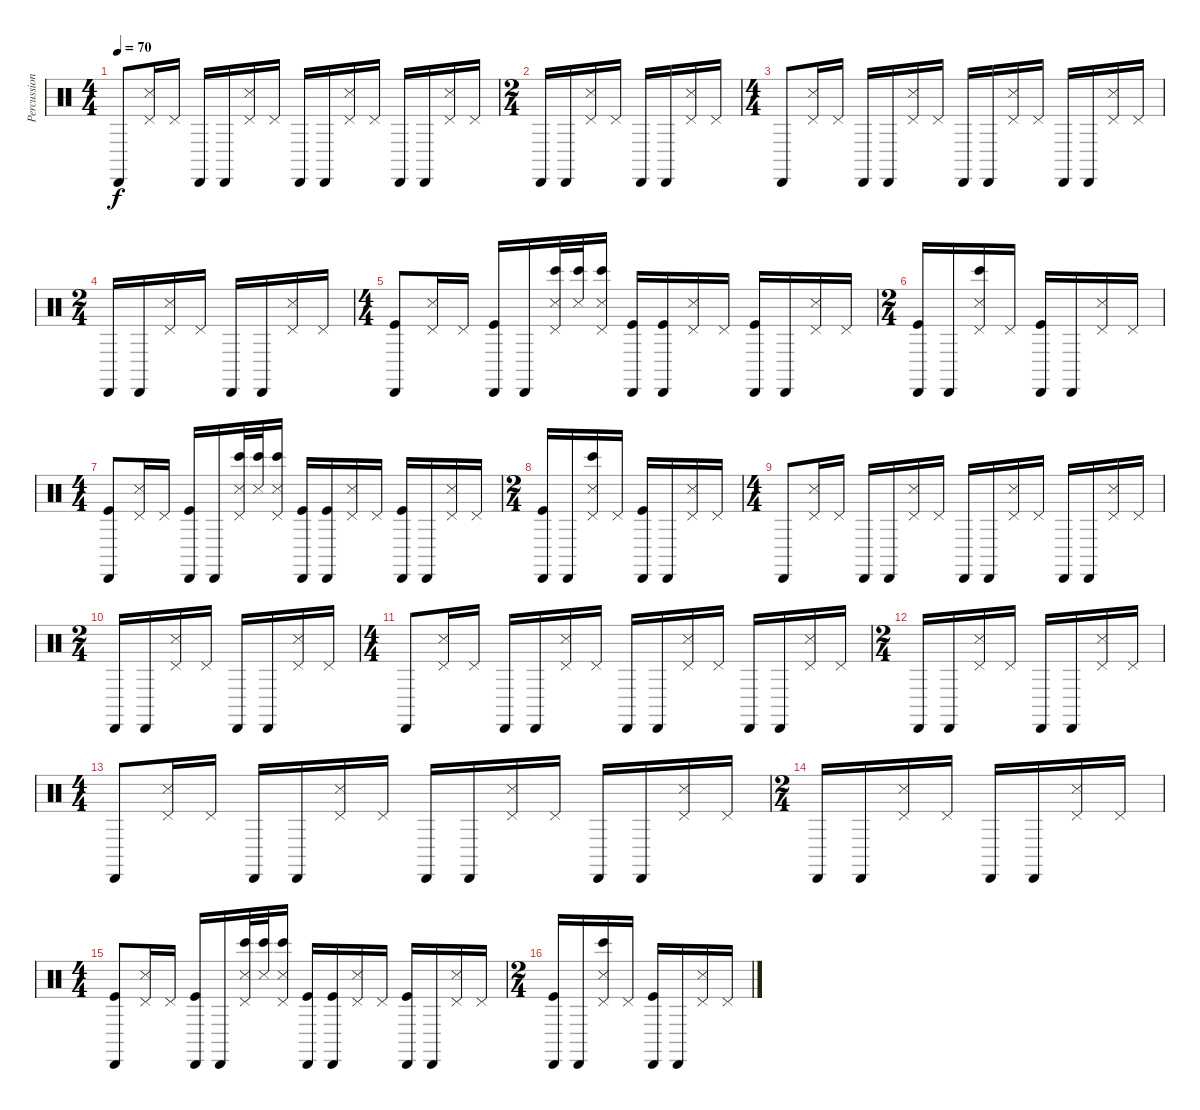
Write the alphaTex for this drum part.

\track ("Percussions" "Percussion") {instrument percussion}
\staff {score}
\articulation defaults
\ts (4 4)
\tempo 70
\clef neutral
\ks c "Cabasa (hit)".8{dy f}
("Pedal Hi-Hat (hit)" "Snare (side stick) 3").16 "Pedal Hi-Hat (hit)".16 "Cabasa (hit)".16 "Cabasa (hit)".16 ("Pedal Hi-Hat (hit)" "Snare (side stick) 3").16 "Pedal Hi-Hat (hit)".16 "Cabasa (hit)".16 "Cabasa (hit)".16 ("Pedal Hi-Hat (hit)" "Snare (side stick) 3").16 "Pedal Hi-Hat (hit)".16 "Cabasa (hit)".16 "Cabasa (hit)".16 ("Pedal Hi-Hat (hit)" "Snare (side stick) 3").16 "Pedal Hi-Hat (hit)".16 |
\ts (2 4)
"Cabasa (hit)".16 "Cabasa (hit)".16 ("Pedal Hi-Hat (hit)" "Snare (side stick) 3").16 "Pedal Hi-Hat (hit)".16 "Cabasa (hit)".16 "Cabasa (hit)".16 ("Pedal Hi-Hat (hit)" "Snare (side stick) 3").16 "Pedal Hi-Hat (hit)".16 |
\ts (4 4)
"Cabasa (hit)".8 ("Pedal Hi-Hat (hit)" "Snare (side stick) 3").16 "Pedal Hi-Hat (hit)".16 "Cabasa (hit)".16 "Cabasa (hit)".16 ("Pedal Hi-Hat (hit)" "Snare (side stick) 3").16 "Pedal Hi-Hat (hit)".16 "Cabasa (hit)".16 "Cabasa (hit)".16 ("Pedal Hi-Hat (hit)" "Snare (side stick) 3").16 "Pedal Hi-Hat (hit)".16 "Cabasa (hit)".16 "Cabasa (hit)".16 ("Pedal Hi-Hat (hit)" "Snare (side stick) 3").16 "Pedal Hi-Hat (hit)".16 |
\ts (2 4)
"Cabasa (hit)".16 "Cabasa (hit)".16 ("Pedal Hi-Hat (hit)" "Snare (side stick) 3").16 "Pedal Hi-Hat (hit)".16 "Cabasa (hit)".16 "Cabasa (hit)".16 ("Pedal Hi-Hat (hit)" "Snare (side stick) 3").16 "Pedal Hi-Hat (hit)".16 |
\ts (4 4)
("Cabasa (hit)" "Kick (hit)").8 ("Pedal Hi-Hat (hit)" "Snare (side stick) 3").16 "Pedal Hi-Hat (hit)".16 ("Cabasa (hit)" "Kick (hit)").16 "Cabasa (hit)".16 ("Pedal Hi-Hat (hit)" "Snare (side stick) 3" "Bongo High (hit)").32 ("Snare (side stick) 3" "Bongo High (hit)").32 ("Pedal Hi-Hat (hit)" "Snare (side stick) 3" "Bongo High (hit)").16 ("Cabasa (hit)" "Kick (hit)").16 ("Cabasa (hit)" "Kick (hit)").16 ("Pedal Hi-Hat (hit)" "Snare (side stick) 3").16 "Pedal Hi-Hat (hit)".16 ("Cabasa (hit)" "Kick (hit)").16 "Cabasa (hit)".16 ("Pedal Hi-Hat (hit)" "Snare (side stick) 3").16 "Pedal Hi-Hat (hit)".16 |
\ts (2 4)
("Cabasa (hit)" "Kick (hit)").16 "Cabasa (hit)".16 ("Pedal Hi-Hat (hit)" "Snare (side stick) 3" "Bongo High (hit)").16 "Pedal Hi-Hat (hit)".16 ("Cabasa (hit)" "Kick (hit)").16 "Cabasa (hit)".16 ("Pedal Hi-Hat (hit)" "Snare (side stick) 3").16 "Pedal Hi-Hat (hit)".16 |
\ts (4 4)
("Cabasa (hit)" "Kick (hit)").8 ("Pedal Hi-Hat (hit)" "Snare (side stick) 3").16 "Pedal Hi-Hat (hit)".16 ("Cabasa (hit)" "Kick (hit)").16 "Cabasa (hit)".16 ("Pedal Hi-Hat (hit)" "Snare (side stick) 3" "Bongo High (hit)").32 ("Snare (side stick) 3" "Bongo High (hit)").32 ("Pedal Hi-Hat (hit)" "Snare (side stick) 3" "Bongo High (hit)").16 ("Cabasa (hit)" "Kick (hit)").16 ("Cabasa (hit)" "Kick (hit)").16 ("Pedal Hi-Hat (hit)" "Snare (side stick) 3").16 "Pedal Hi-Hat (hit)".16 ("Cabasa (hit)" "Kick (hit)").16 "Cabasa (hit)".16 ("Pedal Hi-Hat (hit)" "Snare (side stick) 3").16 "Pedal Hi-Hat (hit)".16 |
\ts (2 4)
("Cabasa (hit)" "Kick (hit)").16 "Cabasa (hit)".16 ("Pedal Hi-Hat (hit)" "Snare (side stick) 3" "Bongo High (hit)").16 "Pedal Hi-Hat (hit)".16 ("Cabasa (hit)" "Kick (hit)").16 "Cabasa (hit)".16 ("Pedal Hi-Hat (hit)" "Snare (side stick) 3").16 "Pedal Hi-Hat (hit)".16 |
\ts (4 4)
"Cabasa (hit)".8 ("Pedal Hi-Hat (hit)" "Snare (side stick) 3").16 "Pedal Hi-Hat (hit)".16 "Cabasa (hit)".16 "Cabasa (hit)".16 ("Pedal Hi-Hat (hit)" "Snare (side stick) 3").16 "Pedal Hi-Hat (hit)".16 "Cabasa (hit)".16 "Cabasa (hit)".16 ("Pedal Hi-Hat (hit)" "Snare (side stick) 3").16 "Pedal Hi-Hat (hit)".16 "Cabasa (hit)".16 "Cabasa (hit)".16 ("Pedal Hi-Hat (hit)" "Snare (side stick) 3").16 "Pedal Hi-Hat (hit)".16 |
\ts (2 4)
"Cabasa (hit)".16 "Cabasa (hit)".16 ("Pedal Hi-Hat (hit)" "Snare (side stick) 3").16 "Pedal Hi-Hat (hit)".16 "Cabasa (hit)".16 "Cabasa (hit)".16 ("Pedal Hi-Hat (hit)" "Snare (side stick) 3").16 "Pedal Hi-Hat (hit)".16 |
\ts (4 4)
"Cabasa (hit)".8 ("Pedal Hi-Hat (hit)" "Snare (side stick) 3").16 "Pedal Hi-Hat (hit)".16 "Cabasa (hit)".16 "Cabasa (hit)".16 ("Pedal Hi-Hat (hit)" "Snare (side stick) 3").16 "Pedal Hi-Hat (hit)".16 "Cabasa (hit)".16 "Cabasa (hit)".16 ("Pedal Hi-Hat (hit)" "Snare (side stick) 3").16 "Pedal Hi-Hat (hit)".16 "Cabasa (hit)".16 "Cabasa (hit)".16 ("Pedal Hi-Hat (hit)" "Snare (side stick) 3").16 "Pedal Hi-Hat (hit)".16 |
\ts (2 4)
"Cabasa (hit)".16 "Cabasa (hit)".16 ("Pedal Hi-Hat (hit)" "Snare (side stick) 3").16 "Pedal Hi-Hat (hit)".16 "Cabasa (hit)".16 "Cabasa (hit)".16 ("Pedal Hi-Hat (hit)" "Snare (side stick) 3").16 "Pedal Hi-Hat (hit)".16 |
\ts (4 4)
"Cabasa (hit)".8 ("Pedal Hi-Hat (hit)" "Snare (side stick) 3").16 "Pedal Hi-Hat (hit)".16 "Cabasa (hit)".16 "Cabasa (hit)".16 ("Pedal Hi-Hat (hit)" "Snare (side stick) 3").16 "Pedal Hi-Hat (hit)".16 "Cabasa (hit)".16 "Cabasa (hit)".16 ("Pedal Hi-Hat (hit)" "Snare (side stick) 3").16 "Pedal Hi-Hat (hit)".16 "Cabasa (hit)".16 "Cabasa (hit)".16 ("Pedal Hi-Hat (hit)" "Snare (side stick) 3").16 "Pedal Hi-Hat (hit)".16 |
\ts (2 4)
"Cabasa (hit)".16 "Cabasa (hit)".16 ("Pedal Hi-Hat (hit)" "Snare (side stick) 3").16 "Pedal Hi-Hat (hit)".16 "Cabasa (hit)".16 "Cabasa (hit)".16 ("Pedal Hi-Hat (hit)" "Snare (side stick) 3").16 "Pedal Hi-Hat (hit)".16 |
\ts (4 4)
("Cabasa (hit)" "Kick (hit)").8 ("Pedal Hi-Hat (hit)" "Snare (side stick) 3").16 "Pedal Hi-Hat (hit)".16 ("Cabasa (hit)" "Kick (hit)").16 "Cabasa (hit)".16 ("Pedal Hi-Hat (hit)" "Snare (side stick) 3" "Bongo High (hit)").32 ("Snare (side stick) 3" "Bongo High (hit)").32 ("Pedal Hi-Hat (hit)" "Snare (side stick) 3" "Bongo High (hit)").16 ("Cabasa (hit)" "Kick (hit)").16 ("Cabasa (hit)" "Kick (hit)").16 ("Pedal Hi-Hat (hit)" "Snare (side stick) 3").16 "Pedal Hi-Hat (hit)".16 ("Cabasa (hit)" "Kick (hit)").16 "Cabasa (hit)".16 ("Pedal Hi-Hat (hit)" "Snare (side stick) 3").16 "Pedal Hi-Hat (hit)".16 |
\ts (2 4)
("Cabasa (hit)" "Kick (hit)").16 "Cabasa (hit)".16 ("Pedal Hi-Hat (hit)" "Snare (side stick) 3" "Bongo High (hit)").16 "Pedal Hi-Hat (hit)".16 ("Cabasa (hit)" "Kick (hit)").16 "Cabasa (hit)".16 ("Pedal Hi-Hat (hit)" "Snare (side stick) 3").16 "Pedal Hi-Hat (hit)".16
